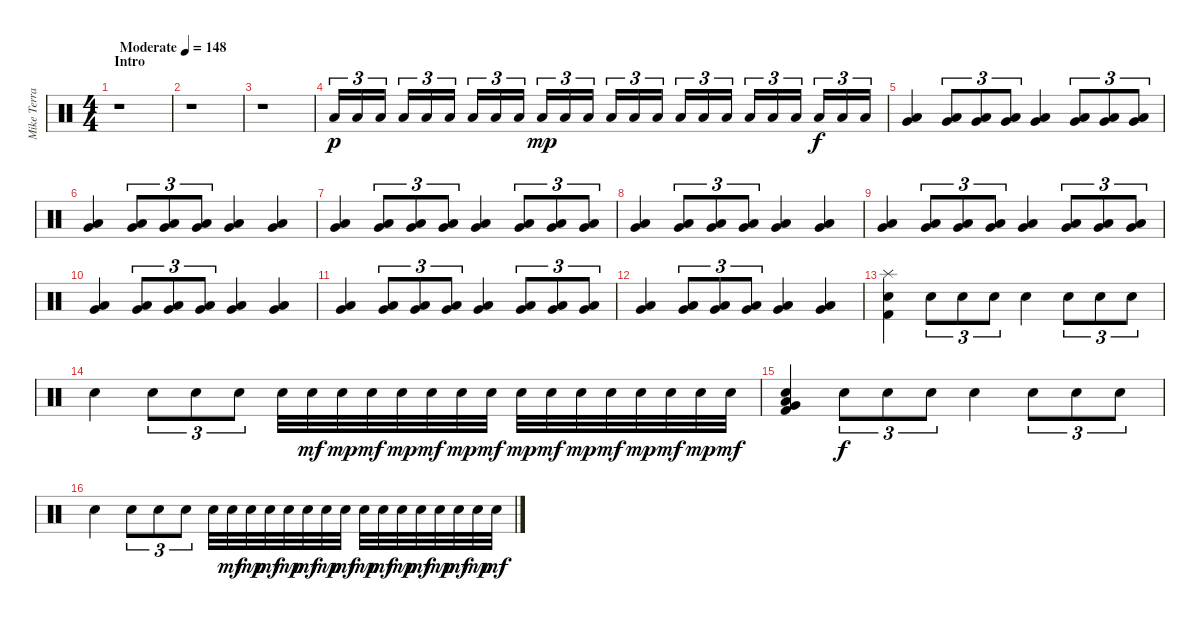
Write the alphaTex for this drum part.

\track ("Mike Terrana" "Mike Terra") {instrument percussion}
\staff {score}
\articulation defaults
\ts (4 4)
\section ("" "Intro")
\tempo (148 "Moderate")
\clef neutral
\ks c
r.1{dy p volume 14} |
r.1 |
r.1 |
"Low Tom (hit)".16{tu (3 2)} "Low Tom (hit)".16{tu (3 2)} "Low Tom (hit)".16{tu (3 2) beam splitsecondary} "Low Tom (hit)".16{tu (3 2)} "Low Tom (hit)".16{tu (3 2)} "Low Tom (hit)".16{tu (3 2)} "Low Tom (hit)".16{tu (3 2)} "Low Tom (hit)".16{tu (3 2)} "Low Tom (hit)".16{tu (3 2) beam splitsecondary} "Low Tom (hit)".16{tu (3 2) dy mp} "Low Tom (hit)".16{tu (3 2)} "Low Tom (hit)".16{tu (3 2)} "Low Tom (hit)".16{tu (3 2)} "Low Tom (hit)".16{tu (3 2)} "Low Tom (hit)".16{tu (3 2) beam splitsecondary} "Low Tom (hit)".16{tu (3 2)} "Low Tom (hit)".16{tu (3 2)} "Low Tom (hit)".16{tu (3 2)} "Low Tom (hit)".16{tu (3 2)} "Low Tom (hit)".16{tu (3 2)} "Low Tom (hit)".16{tu (3 2) beam splitsecondary} "Low Tom (hit)".16{tu (3 2) dy f} "Low Tom (hit)".16{tu (3 2)} "Low Tom (hit)".16{tu (3 2)} |
("Low Tom (hit)" "Very Low Tom (hit)").4 ("Low Tom (hit)" "Very Low Tom (hit)").8{tu (3 2)} ("Low Tom (hit)" "Very Low Tom (hit)").8{tu (3 2)} ("Low Tom (hit)" "Very Low Tom (hit)").8{tu (3 2)} ("Low Tom (hit)" "Very Low Tom (hit)").4 ("Low Tom (hit)" "Very Low Tom (hit)").8{tu (3 2)} ("Low Tom (hit)" "Very Low Tom (hit)").8{tu (3 2)} ("Low Tom (hit)" "Very Low Tom (hit)").8{tu (3 2)} |
("Low Tom (hit)" "Very Low Tom (hit)").4 ("Low Tom (hit)" "Very Low Tom (hit)").8{tu (3 2)} ("Low Tom (hit)" "Very Low Tom (hit)").8{tu (3 2)} ("Low Tom (hit)" "Very Low Tom (hit)").8{tu (3 2)} ("Low Tom (hit)" "Very Low Tom (hit)").4 ("Low Tom (hit)" "Very Low Tom (hit)").4 |
("Low Tom (hit)" "Very Low Tom (hit)").4 ("Low Tom (hit)" "Very Low Tom (hit)").8{tu (3 2)} ("Low Tom (hit)" "Very Low Tom (hit)").8{tu (3 2)} ("Low Tom (hit)" "Very Low Tom (hit)").8{tu (3 2)} ("Low Tom (hit)" "Very Low Tom (hit)").4 ("Low Tom (hit)" "Very Low Tom (hit)").8{tu (3 2)} ("Low Tom (hit)" "Very Low Tom (hit)").8{tu (3 2)} ("Low Tom (hit)" "Very Low Tom (hit)").8{tu (3 2)} |
("Low Tom (hit)" "Very Low Tom (hit)").4 ("Low Tom (hit)" "Very Low Tom (hit)").8{tu (3 2)} ("Low Tom (hit)" "Very Low Tom (hit)").8{tu (3 2)} ("Low Tom (hit)" "Very Low Tom (hit)").8{tu (3 2)} ("Low Tom (hit)" "Very Low Tom (hit)").4 ("Low Tom (hit)" "Very Low Tom (hit)").4 |
("Low Tom (hit)" "Very Low Tom (hit)").4 ("Low Tom (hit)" "Very Low Tom (hit)").8{tu (3 2)} ("Low Tom (hit)" "Very Low Tom (hit)").8{tu (3 2)} ("Low Tom (hit)" "Very Low Tom (hit)").8{tu (3 2)} ("Low Tom (hit)" "Very Low Tom (hit)").4 ("Low Tom (hit)" "Very Low Tom (hit)").8{tu (3 2)} ("Low Tom (hit)" "Very Low Tom (hit)").8{tu (3 2)} ("Low Tom (hit)" "Very Low Tom (hit)").8{tu (3 2)} |
("Low Tom (hit)" "Very Low Tom (hit)").4 ("Low Tom (hit)" "Very Low Tom (hit)").8{tu (3 2)} ("Low Tom (hit)" "Very Low Tom (hit)").8{tu (3 2)} ("Low Tom (hit)" "Very Low Tom (hit)").8{tu (3 2)} ("Low Tom (hit)" "Very Low Tom (hit)").4 ("Low Tom (hit)" "Very Low Tom (hit)").4 |
("Low Tom (hit)" "Very Low Tom (hit)").4 ("Low Tom (hit)" "Very Low Tom (hit)").8{tu (3 2)} ("Low Tom (hit)" "Very Low Tom (hit)").8{tu (3 2)} ("Low Tom (hit)" "Very Low Tom (hit)").8{tu (3 2)} ("Low Tom (hit)" "Very Low Tom (hit)").4 ("Low Tom (hit)" "Very Low Tom (hit)").8{tu (3 2)} ("Low Tom (hit)" "Very Low Tom (hit)").8{tu (3 2)} ("Low Tom (hit)" "Very Low Tom (hit)").8{tu (3 2)} |
("Low Tom (hit)" "Very Low Tom (hit)").4 ("Low Tom (hit)" "Very Low Tom (hit)").8{tu (3 2)} ("Low Tom (hit)" "Very Low Tom (hit)").8{tu (3 2)} ("Low Tom (hit)" "Very Low Tom (hit)").8{tu (3 2)} ("Low Tom (hit)" "Very Low Tom (hit)").4 ("Low Tom (hit)" "Very Low Tom (hit)").4 |
("Splash (hit)" "Snare (hit) 2" "Kick (hit) 2").4 "Snare (hit) 2".8{tu (3 2)} "Snare (hit) 2".8{tu (3 2)} "Snare (hit) 2".8{tu (3 2)} "Snare (hit) 2".4 "Snare (hit) 2".8{tu (3 2)} "Snare (hit) 2".8{tu (3 2)} "Snare (hit) 2".8{tu (3 2)} |
"Snare (hit) 2".4 "Snare (hit) 2".8{tu (3 2)} "Snare (hit) 2".8{tu (3 2)} "Snare (hit) 2".8{tu (3 2)} "Snare (hit) 2".32 "Snare (hit) 2".32{dy mf} "Snare (hit) 2".32{dy mp} "Snare (hit) 2".32{dy mf} "Snare (hit) 2".32{dy mp} "Snare (hit) 2".32{dy mf} "Snare (hit) 2".32{dy mp} "Snare (hit) 2".32{dy mf} "Snare (hit) 2".32{dy mp} "Snare (hit) 2".32{dy mf} "Snare (hit) 2".32{dy mp} "Snare (hit) 2".32{dy mf} "Snare (hit) 2".32{dy mp} "Snare (hit) 2".32{dy mf} "Snare (hit) 2".32{dy mp} "Snare (hit) 2".32{dy mf} |
("Very Low Tom (hit)" "Snare (hit) 2" "Low Tom (hit)" "Kick (hit) 2").4 "Snare (hit) 2".8{tu (3 2) dy f} "Snare (hit) 2".8{tu (3 2)} "Snare (hit) 2".8{tu (3 2)} "Snare (hit) 2".4 "Snare (hit) 2".8{tu (3 2)} "Snare (hit) 2".8{tu (3 2)} "Snare (hit) 2".8{tu (3 2)} |
"Snare (hit) 2".4 "Snare (hit) 2".8{tu (3 2)} "Snare (hit) 2".8{tu (3 2)} "Snare (hit) 2".8{tu (3 2)} "Snare (hit) 2".32 "Snare (hit) 2".32{dy mf} "Snare (hit) 2".32{dy mp} "Snare (hit) 2".32{dy mf} "Snare (hit) 2".32{dy mp} "Snare (hit) 2".32{dy mf} "Snare (hit) 2".32{dy mp} "Snare (hit) 2".32{dy mf} "Snare (hit) 2".32{dy mp} "Snare (hit) 2".32{dy mf} "Snare (hit) 2".32{dy mp} "Snare (hit) 2".32{dy mf} "Snare (hit) 2".32{dy mp} "Snare (hit) 2".32{dy mf} "Snare (hit) 2".32{dy mp} "Snare (hit) 2".32{dy mf}
